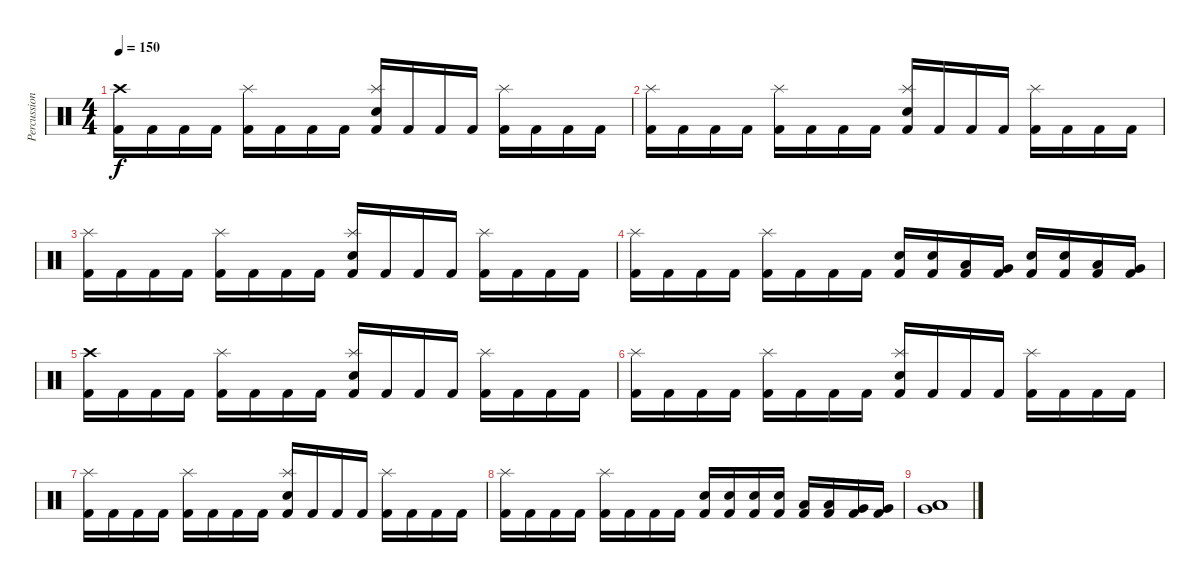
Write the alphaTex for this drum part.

\track ("Percussion" "Percussion") {instrument percussion}
\staff {score}
\articulation defaults
\ts (4 4)
\tempo 150
\clef neutral
\ks c
("Crash high (hit)" "Kick (hit) 2").16{dy f} "Kick (hit) 2".16 "Kick (hit) 2".16 "Kick (hit) 2".16 ("Splash (hit)" "Kick (hit) 2").16 "Kick (hit) 2".16 "Kick (hit) 2".16 "Kick (hit) 2".16 ("Splash (hit)" "Electric Snare (hit)" "Kick (hit) 2").16 "Kick (hit) 2".16 "Kick (hit) 2".16 "Kick (hit) 2".16 ("Splash (hit)" "Kick (hit) 2").16 "Kick (hit) 2".16 "Kick (hit) 2".16 "Kick (hit) 2".16 |
("Splash (hit)" "Kick (hit) 2").16 "Kick (hit) 2".16 "Kick (hit) 2".16 "Kick (hit) 2".16 ("Splash (hit)" "Kick (hit) 2").16 "Kick (hit) 2".16 "Kick (hit) 2".16 "Kick (hit) 2".16 ("Splash (hit)" "Electric Snare (hit)" "Kick (hit) 2").16 "Kick (hit) 2".16 "Kick (hit) 2".16 "Kick (hit) 2".16 ("Splash (hit)" "Kick (hit) 2").16 "Kick (hit) 2".16 "Kick (hit) 2".16 "Kick (hit) 2".16 |
("Splash (hit)" "Kick (hit) 2").16 "Kick (hit) 2".16 "Kick (hit) 2".16 "Kick (hit) 2".16 ("Splash (hit)" "Kick (hit) 2").16 "Kick (hit) 2".16 "Kick (hit) 2".16 "Kick (hit) 2".16 ("Splash (hit)" "Electric Snare (hit)" "Kick (hit) 2").16 "Kick (hit) 2".16 "Kick (hit) 2".16 "Kick (hit) 2".16 ("Splash (hit)" "Kick (hit) 2").16 "Kick (hit) 2".16 "Kick (hit) 2".16 "Kick (hit) 2".16 |
("Splash (hit)" "Kick (hit) 2").16 "Kick (hit) 2".16 "Kick (hit) 2".16 "Kick (hit) 2".16 ("Splash (hit)" "Kick (hit) 2").16 "Kick (hit) 2".16 "Kick (hit) 2".16 "Kick (hit) 2".16 ("Electric Snare (hit)" "Kick (hit) 2").16 ("Electric Snare (hit)" "Kick (hit) 2").16 ("Low Tom (hit)" "Kick (hit) 2").16 ("Very Low Tom (hit)" "Kick (hit) 2").16 ("Electric Snare (hit)" "Kick (hit) 2").16 ("Electric Snare (hit)" "Kick (hit) 2").16 ("Low Tom (hit)" "Kick (hit) 2").16 ("Very Low Tom (hit)" "Kick (hit) 2").16 |
("Crash high (hit)" "Kick (hit) 2").16 "Kick (hit) 2".16 "Kick (hit) 2".16 "Kick (hit) 2".16 ("Splash (hit)" "Kick (hit) 2").16 "Kick (hit) 2".16 "Kick (hit) 2".16 "Kick (hit) 2".16 ("Splash (hit)" "Electric Snare (hit)" "Kick (hit) 2").16 "Kick (hit) 2".16 "Kick (hit) 2".16 "Kick (hit) 2".16 ("Splash (hit)" "Kick (hit) 2").16 "Kick (hit) 2".16 "Kick (hit) 2".16 "Kick (hit) 2".16 |
("Splash (hit)" "Kick (hit) 2").16 "Kick (hit) 2".16 "Kick (hit) 2".16 "Kick (hit) 2".16 ("Splash (hit)" "Kick (hit) 2").16 "Kick (hit) 2".16 "Kick (hit) 2".16 "Kick (hit) 2".16 ("Splash (hit)" "Electric Snare (hit)" "Kick (hit) 2").16 "Kick (hit) 2".16 "Kick (hit) 2".16 "Kick (hit) 2".16 ("Splash (hit)" "Kick (hit) 2").16 "Kick (hit) 2".16 "Kick (hit) 2".16 "Kick (hit) 2".16 |
("Splash (hit)" "Kick (hit) 2").16 "Kick (hit) 2".16 "Kick (hit) 2".16 "Kick (hit) 2".16 ("Splash (hit)" "Kick (hit) 2").16 "Kick (hit) 2".16 "Kick (hit) 2".16 "Kick (hit) 2".16 ("Splash (hit)" "Electric Snare (hit)" "Kick (hit) 2").16 "Kick (hit) 2".16 "Kick (hit) 2".16 "Kick (hit) 2".16 ("Splash (hit)" "Kick (hit) 2").16 "Kick (hit) 2".16 "Kick (hit) 2".16 "Kick (hit) 2".16 |
("Splash (hit)" "Kick (hit) 2").16 "Kick (hit) 2".16 "Kick (hit) 2".16 "Kick (hit) 2".16 ("Splash (hit)" "Kick (hit) 2").16 "Kick (hit) 2".16 "Kick (hit) 2".16 "Kick (hit) 2".16 ("Electric Snare (hit)" "Kick (hit) 2").16 ("Electric Snare (hit)" "Kick (hit) 2").16 ("Electric Snare (hit)" "Kick (hit) 2").16 ("Electric Snare (hit)" "Kick (hit) 2").16 ("Low Tom (hit)" "Kick (hit) 2").16 ("Low Tom (hit)" "Kick (hit) 2").16 ("Very Low Tom (hit)" "Kick (hit) 2").16 ("Very Low Tom (hit)" "Kick (hit) 2").16 |
("Low Tom (hit)" "Very Low Tom (hit)" "Low Floor Tom (hit)").1
